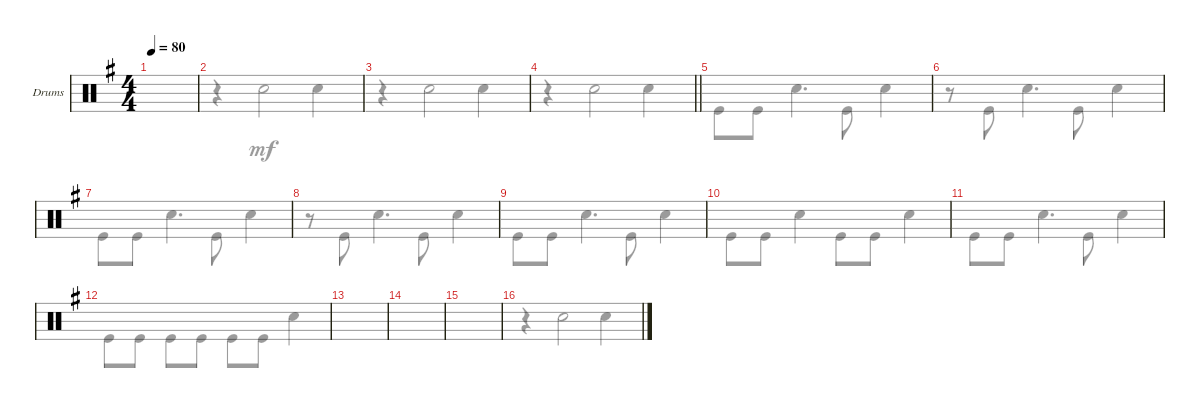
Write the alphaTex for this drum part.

\defaultSystemsLayout 4
\bracketExtendMode groupsimilarinstruments
\firstSystemTrackNameOrientation horizontal
\otherSystemsTrackNameOrientation horizontal
\track ("Drumkit" "Drums") {instrument percussion}
\staff {score}
\articulation defaults
\voice
\ts (4 4)
\scale
0.515714
\tempo 80
\accidentals auto
\clef neutral
\ottava regular
\simile none
\ks eminor
|
\scale
0.48433 |
\scale
0.466095 |
\scale
0.534188
\barLineRight lightlight
|
\scale
0.480929 |
\scale
0.519122 |
\scale
0.496627 |
\scale
0.503434 |
\scale
0.563993 |
\scale
0.435897 |
\scale
0.532258 |
\scale
0.467742 |
|
|
\scale
0.609921 |
\scale
0.389943
\voice
\clef neutral
\ottava regular
\simile none
\ks eminor
r.4{dy mf} "Snare (hit) 2".2 "Snare (hit) 2".4 |
r.4 "Snare (hit) 2".2 "Snare (hit) 2".4 |
r.4 "Snare (hit) 2".2 "Snare (hit) 2".4 |
\barLineRight lightlight
r.4 "Snare (hit) 2".2 "Snare (hit) 2".4 |
"Kick (hit)".8 "Kick (hit)".8 "Snare (hit) 2".4{d} "Kick (hit)".8 "Snare (hit) 2".4 |
r.8 "Kick (hit)".8 "Snare (hit) 2".4{d} "Kick (hit)".8 "Snare (hit) 2".4 |
"Kick (hit)".8 "Kick (hit)".8 "Snare (hit) 2".4{d} "Kick (hit)".8 "Snare (hit) 2".4 |
r.8 "Kick (hit)".8 "Snare (hit) 2".4{d} "Kick (hit)".8 "Snare (hit) 2".4 |
"Kick (hit)".8 "Kick (hit)".8 "Snare (hit) 2".4{d} "Kick (hit)".8 "Snare (hit) 2".4 |
"Kick (hit)".8 "Kick (hit)".8 "Snare (hit) 2".4 "Kick (hit)".8 "Kick (hit)".8 "Snare (hit) 2".4 |
"Kick (hit)".8 "Kick (hit)".8 "Snare (hit) 2".4{d} "Kick (hit)".8 "Snare (hit) 2".4 |
"Kick (hit)".8 "Kick (hit)".8 "Kick (hit)".8 "Kick (hit)".8 "Kick (hit)".8 "Kick (hit)".8 "Snare (hit) 2".4 |
|
|
|
